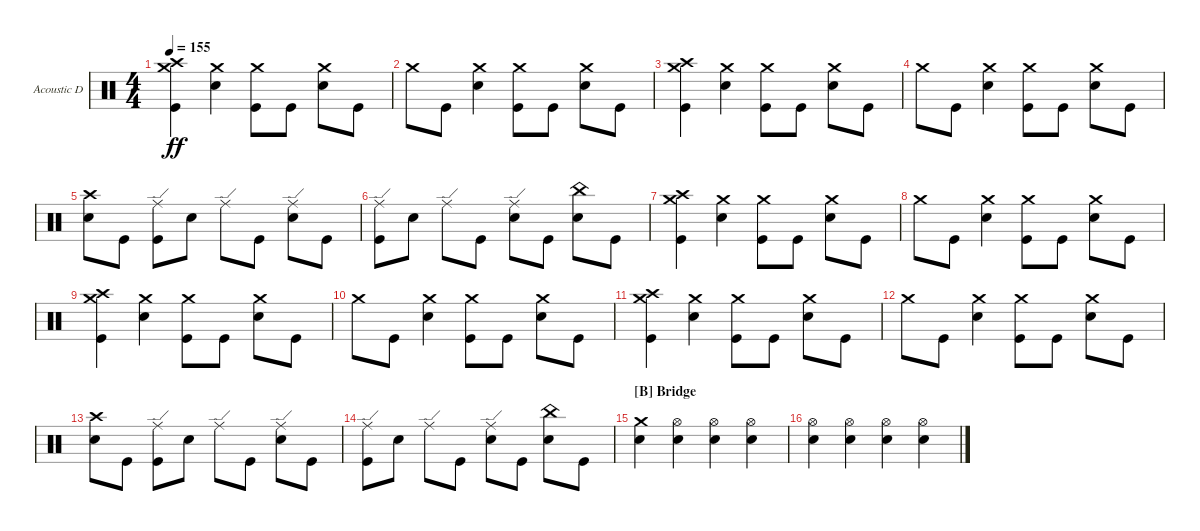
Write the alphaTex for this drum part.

\defaultSystemsLayout 4
\bracketExtendMode groupsimilarinstruments
\firstSystemTrackNameOrientation horizontal
\otherSystemsTrackNameOrientation horizontal
\track ("Acoustic Drums" "Acoustic D") {instrument percussion}
\staff {score}
\articulation defaults
\ts (4 4)
\tempo 155
\clef neutral
\ks c
("Crash medium (hit)" "Kick (hit)" "Crash high (hit)").4{dy ff} ("Crash medium (hit)" "Snare (hit) 2").4 ("Crash medium (hit)" "Kick (hit)").8 "Kick (hit)".8 ("Crash medium (hit)" "Snare (hit) 2").8 "Kick (hit)".8 |
"Crash medium (hit)".8 "Kick (hit)".8 ("Crash medium (hit)" "Snare (hit) 2").4 ("Crash medium (hit)" "Kick (hit)").8 "Kick (hit)".8 ("Crash medium (hit)" "Snare (hit) 2").8 "Kick (hit)".8 |
("Crash medium (hit)" "Kick (hit)" "Crash high (hit)").4 ("Crash medium (hit)" "Snare (hit) 2").4 ("Crash medium (hit)" "Kick (hit)").8 "Kick (hit)".8 ("Crash medium (hit)" "Snare (hit) 2").8 "Kick (hit)".8 |
"Crash medium (hit)".8 "Kick (hit)".8 ("Crash medium (hit)" "Snare (hit) 2").4 ("Crash medium (hit)" "Kick (hit)").8 "Kick (hit)".8 ("Crash medium (hit)" "Snare (hit) 2").8 "Kick (hit)".8 |
("Crash high (hit)" "Snare (hit) 2").8 "Kick (hit)".8 ("Ride (edge)" "Kick (hit)").8 "Snare (hit) 2".8 "Ride (edge)".8 "Kick (hit)".8 ("Ride (edge)" "Snare (hit) 2").8 "Kick (hit)".8 |
("Ride (edge)" "Kick (hit)").8 "Snare (hit) 2".8 "Ride (edge)".8 "Kick (hit)".8 ("Ride (edge)" "Snare (hit) 2").8 "Kick (hit)".8 ("Snare (hit) 2" "China (hit)").8 "Kick (hit)".8 |
("Crash high (hit)" "Crash medium (hit)" "Kick (hit)").4 ("Crash medium (hit)" "Snare (hit) 2").4 ("Crash medium (hit)" "Kick (hit)").8 "Kick (hit)".8 ("Crash medium (hit)" "Snare (hit) 2").8 "Kick (hit)".8 |
"Crash medium (hit)".8 "Kick (hit)".8 ("Crash medium (hit)" "Snare (hit) 2").4 ("Crash medium (hit)" "Kick (hit)").8 "Kick (hit)".8 ("Crash medium (hit)" "Snare (hit) 2").8 "Kick (hit)".8 |
("Crash medium (hit)" "Kick (hit)" "Crash high (hit)").4 ("Crash medium (hit)" "Snare (hit) 2").4 ("Crash medium (hit)" "Kick (hit)").8 "Kick (hit)".8 ("Crash medium (hit)" "Snare (hit) 2").8 "Kick (hit)".8 |
"Crash medium (hit)".8 "Kick (hit)".8 ("Crash medium (hit)" "Snare (hit) 2").4 ("Crash medium (hit)" "Kick (hit)").8 "Kick (hit)".8 ("Crash medium (hit)" "Snare (hit) 2").8 "Kick (hit)".8 |
("Crash medium (hit)" "Kick (hit)" "Crash high (hit)").4 ("Crash medium (hit)" "Snare (hit) 2").4 ("Crash medium (hit)" "Kick (hit)").8 "Kick (hit)".8 ("Crash medium (hit)" "Snare (hit) 2").8 "Kick (hit)".8 |
"Crash medium (hit)".8 "Kick (hit)".8 ("Crash medium (hit)" "Snare (hit) 2").4 ("Crash medium (hit)" "Kick (hit)").8 "Kick (hit)".8 ("Crash medium (hit)" "Snare (hit) 2").8 "Kick (hit)".8 |
("Crash high (hit)" "Snare (hit) 2").8 "Kick (hit)".8 ("Ride (edge)" "Kick (hit)").8 "Snare (hit) 2".8 "Ride (edge)".8 "Kick (hit)".8 ("Ride (edge)" "Snare (hit) 2").8 "Kick (hit)".8 |
("Ride (edge)" "Kick (hit)").8 "Snare (hit) 2".8 "Ride (edge)".8 "Kick (hit)".8 ("Ride (edge)" "Snare (hit) 2").8 "Kick (hit)".8 ("Snare (hit) 2" "China (hit)").8 "Kick (hit)".8 |
\section ("B" "Bridge")
("Snare (hit) 2" "Crash medium (hit)").4 ("Hi-Hat (open)" "Snare (hit) 2").4 ("Hi-Hat (open)" "Snare (hit) 2").4 ("Hi-Hat (open)" "Snare (hit) 2").4 |
("Snare (hit) 2" "Hi-Hat (open)").4 ("Hi-Hat (open)" "Snare (hit) 2").4 ("Hi-Hat (open)" "Snare (hit) 2").4 ("Hi-Hat (open)" "Snare (hit) 2").4
